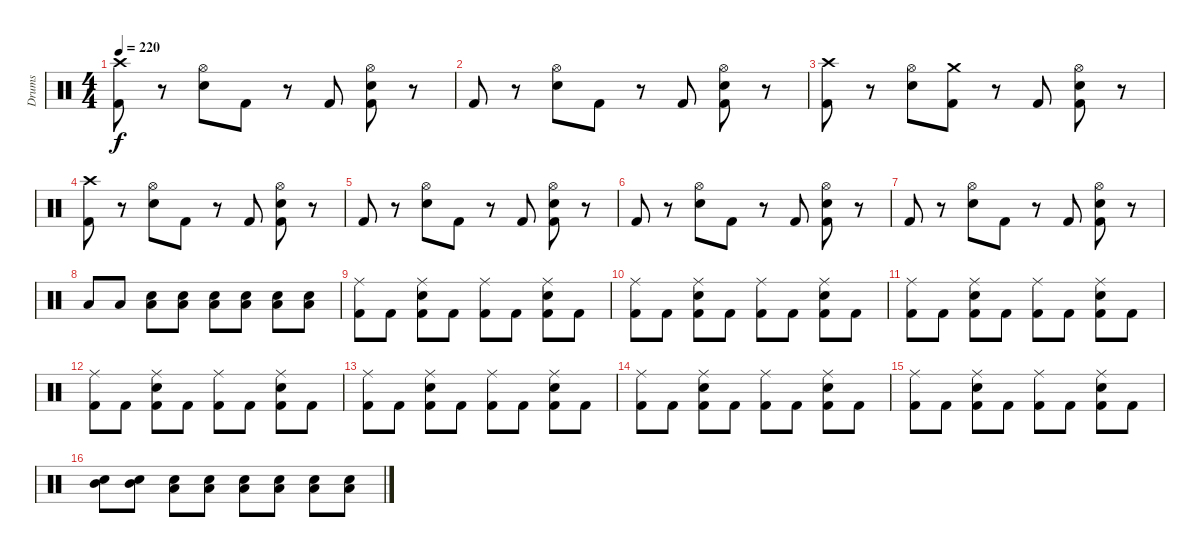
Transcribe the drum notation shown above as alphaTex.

\track ("Drums" "Drums") {instrument percussion}
\staff {score}
\articulation defaults
\ts (4 4)
\tempo 220
\clef neutral
\ks c
("Crash high (hit)" "Kick (hit) 2").8{dy f} r.8 ("Electric Snare (hit)" "Hi-Hat (open)").8 "Kick (hit) 2".8 r.8 "Kick (hit) 2".8 ("Electric Snare (hit)" "Hi-Hat (open)" "Kick (hit) 2").8 r.8 |
"Kick (hit) 2".8 r.8 ("Electric Snare (hit)" "Hi-Hat (open)").8 "Kick (hit) 2".8 r.8 "Kick (hit) 2".8 ("Electric Snare (hit)" "Hi-Hat (open)" "Kick (hit) 2").8 r.8 |
("Crash high (hit)" "Kick (hit) 2").8 r.8 ("Electric Snare (hit)" "Hi-Hat (open)").8 ("Crash medium (hit)" "Kick (hit) 2").8 r.8 "Kick (hit) 2".8 ("Electric Snare (hit)" "Hi-Hat (open)" "Kick (hit) 2").8 r.8 |
("Crash high (hit)" "Kick (hit) 2").8 r.8 ("Electric Snare (hit)" "Hi-Hat (open)").8 "Kick (hit) 2".8 r.8 "Kick (hit) 2".8 ("Electric Snare (hit)" "Hi-Hat (open)" "Kick (hit) 2").8 r.8 |
"Kick (hit) 2".8 r.8 ("Electric Snare (hit)" "Hi-Hat (open)").8 "Kick (hit) 2".8 r.8 "Kick (hit) 2".8 ("Electric Snare (hit)" "Hi-Hat (open)" "Kick (hit) 2").8 r.8 |
"Kick (hit) 2".8 r.8 ("Electric Snare (hit)" "Hi-Hat (open)").8 "Kick (hit) 2".8 r.8 "Kick (hit) 2".8 ("Electric Snare (hit)" "Hi-Hat (open)" "Kick (hit) 2").8 r.8 |
"Kick (hit) 2".8 r.8 ("Electric Snare (hit)" "Hi-Hat (open)").8 "Kick (hit) 2".8 r.8 "Kick (hit) 2".8 ("Electric Snare (hit)" "Hi-Hat (open)" "Kick (hit) 2").8 r.8 |
"Low Tom (hit)".8 "Low Tom (hit)".8 ("Low Tom (hit)" "Electric Snare (hit)").8 ("Low Tom (hit)" "Electric Snare (hit)").8 ("Low Tom (hit)" "Electric Snare (hit)").8 ("Low Tom (hit)" "Electric Snare (hit)").8 ("Low Tom (hit)" "Electric Snare (hit)").8 ("Low Tom (hit)" "Electric Snare (hit)").8 |
("Ride (middle)" "Kick (hit) 2").8 "Kick (hit) 2".8 ("Electric Snare (hit)" "Ride (middle)" "Kick (hit) 2").8 "Kick (hit) 2".8 ("Ride (middle)" "Kick (hit) 2").8 "Kick (hit) 2".8 ("Electric Snare (hit)" "Ride (middle)" "Kick (hit) 2").8 "Kick (hit) 2".8 |
("Ride (middle)" "Kick (hit) 2").8 "Kick (hit) 2".8 ("Electric Snare (hit)" "Ride (middle)" "Kick (hit) 2").8 "Kick (hit) 2".8 ("Ride (middle)" "Kick (hit) 2").8 "Kick (hit) 2".8 ("Electric Snare (hit)" "Ride (middle)" "Kick (hit) 2").8 "Kick (hit) 2".8 |
("Ride (middle)" "Kick (hit) 2").8 "Kick (hit) 2".8 ("Electric Snare (hit)" "Ride (middle)" "Kick (hit) 2").8 "Kick (hit) 2".8 ("Ride (middle)" "Kick (hit) 2").8 "Kick (hit) 2".8 ("Electric Snare (hit)" "Ride (middle)" "Kick (hit) 2").8 "Kick (hit) 2".8 |
("Ride (middle)" "Kick (hit) 2").8 "Kick (hit) 2".8 ("Electric Snare (hit)" "Ride (middle)" "Kick (hit) 2").8 "Kick (hit) 2".8 ("Ride (middle)" "Kick (hit) 2").8 "Kick (hit) 2".8 ("Electric Snare (hit)" "Ride (middle)" "Kick (hit) 2").8 "Kick (hit) 2".8 |
("Ride (middle)" "Kick (hit) 2").8 "Kick (hit) 2".8 ("Electric Snare (hit)" "Ride (middle)" "Kick (hit) 2").8 "Kick (hit) 2".8 ("Ride (middle)" "Kick (hit) 2").8 "Kick (hit) 2".8 ("Electric Snare (hit)" "Ride (middle)" "Kick (hit) 2").8 "Kick (hit) 2".8 |
("Ride (middle)" "Kick (hit) 2").8 "Kick (hit) 2".8 ("Electric Snare (hit)" "Ride (middle)" "Kick (hit) 2").8 "Kick (hit) 2".8 ("Ride (middle)" "Kick (hit) 2").8 "Kick (hit) 2".8 ("Electric Snare (hit)" "Ride (middle)" "Kick (hit) 2").8 "Kick (hit) 2".8 |
("Ride (middle)" "Kick (hit) 2").8 "Kick (hit) 2".8 ("Electric Snare (hit)" "Ride (middle)" "Kick (hit) 2").8 "Kick (hit) 2".8 ("Ride (middle)" "Kick (hit) 2").8 "Kick (hit) 2".8 ("Electric Snare (hit)" "Ride (middle)" "Kick (hit) 2").8 "Kick (hit) 2".8 |
("Mid Tom (hit)" "Electric Snare (hit)").8 ("Mid Tom (hit)" "Electric Snare (hit)").8 ("Low Tom (hit)" "Electric Snare (hit)").8 ("Low Tom (hit)" "Electric Snare (hit)").8 ("Low Tom (hit)" "Electric Snare (hit)").8 ("Low Tom (hit)" "Electric Snare (hit)").8 ("Low Tom (hit)" "Electric Snare (hit)").8 ("Low Tom (hit)" "Electric Snare (hit)").8
